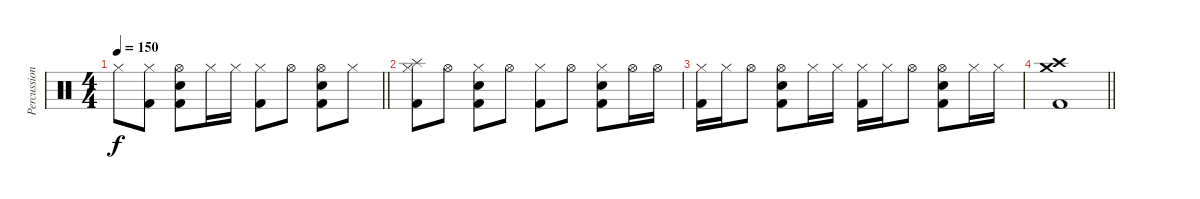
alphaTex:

\track ("Percussion" "Percussion") {instrument percussion}
\staff {score}
\articulation defaults
\ts (4 4)
\tempo 150
\clef neutral
\barLineRight lightlight
\ks c "Hi-Hat (closed)".8{dy f}
("Hi-Hat (closed)" "Kick (hit) 2").8 ("Hi-Hat (open)" "Snare (hit) 2" "Kick (hit) 2").8 "Hi-Hat (closed)".16 "Hi-Hat (closed)".16 ("Hi-Hat (closed)" "Kick (hit) 2").8 "Hi-Hat (open)".8 ("Hi-Hat (open)" "Snare (hit) 2" "Kick (hit) 2").8 "Hi-Hat (closed)".8 |
("Hi-Hat (closed)" "Splash (hit)" "Kick (hit) 2").8 "Hi-Hat (open)".8 ("Hi-Hat (closed)" "Snare (hit) 2" "Kick (hit) 2").8 "Hi-Hat (open)".8 ("Hi-Hat (closed)" "Kick (hit) 2").8 "Hi-Hat (open)".8 ("Hi-Hat (closed)" "Snare (hit) 2" "Kick (hit) 2").8 "Hi-Hat (open)".16 "Hi-Hat (open)".16 |
("Hi-Hat (closed)" "Kick (hit) 2").16 "Hi-Hat (closed)".16 "Hi-Hat (open)".8 ("Hi-Hat (open)" "Snare (hit) 2" "Kick (hit) 2").8 "Hi-Hat (closed)".16 "Hi-Hat (closed)".16 ("Hi-Hat (closed)" "Kick (hit) 2").16 "Hi-Hat (closed)".16 "Hi-Hat (open)".8 ("Hi-Hat (open)" "Snare (hit) 2" "Kick (hit) 2").8 "Hi-Hat (closed)".16 "Hi-Hat (closed)".16 |
\barLineRight lightlight
("Crash high (hit)" "Crash medium (hit)" "Kick (hit) 2").1
